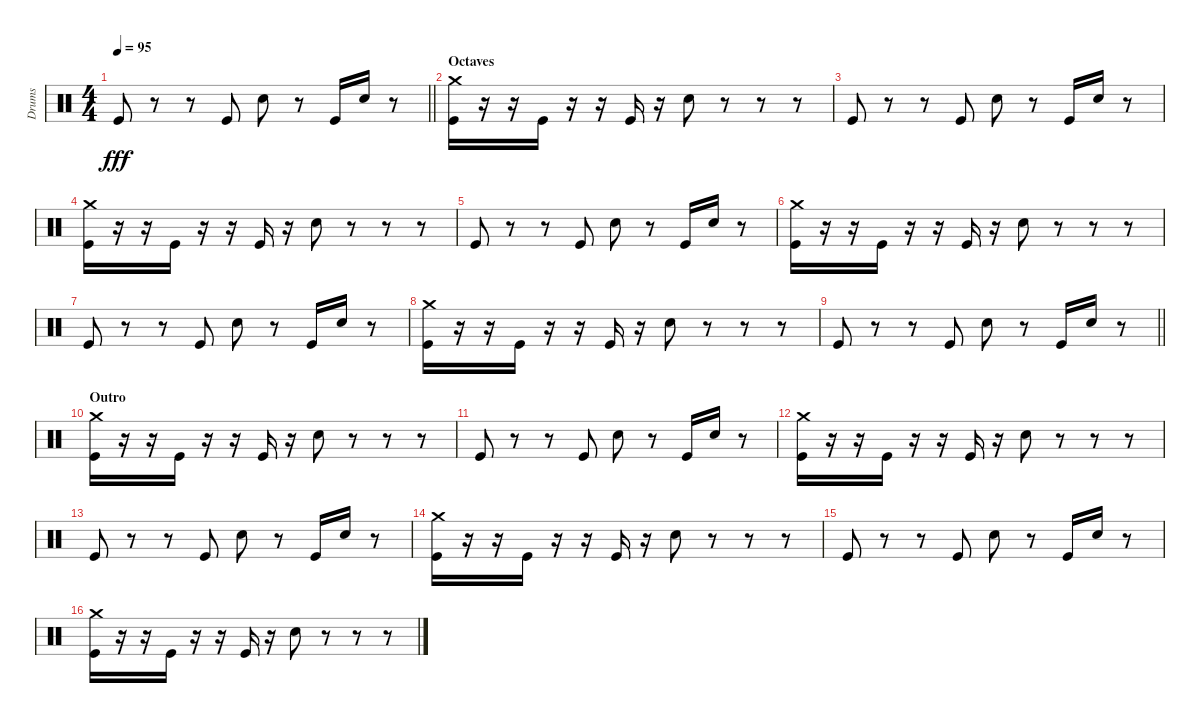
\track ("Drums" "Drums") {instrument percussion}
\staff {score}
\articulation defaults
\ts (4 4)
\tempo 95
\clef neutral
\barLineRight lightlight
\ks c "Kick (hit)".8{dy fff}
r.8 r.8 "Kick (hit)".8 "Electric Snare (hit)".8 r.8 "Kick (hit)".16 "Electric Snare (hit)".16 r.8 |
\section ("" "Octaves")
("Crash medium (hit)" "Kick (hit)").16 r.16 r.16 "Kick (hit)".16 r.16 r.16 "Kick (hit)".16 r.16 "Electric Snare (hit)".8 r.8 r.8 r.8 |
"Kick (hit)".8 r.8 r.8 "Kick (hit)".8 "Electric Snare (hit)".8 r.8 "Kick (hit)".16 "Electric Snare (hit)".16 r.8 |
("Crash medium (hit)" "Kick (hit)").16 r.16 r.16 "Kick (hit)".16 r.16 r.16 "Kick (hit)".16 r.16 "Electric Snare (hit)".8 r.8 r.8 r.8 |
"Kick (hit)".8 r.8 r.8 "Kick (hit)".8 "Electric Snare (hit)".8 r.8 "Kick (hit)".16 "Electric Snare (hit)".16 r.8 |
("Crash medium (hit)" "Kick (hit)").16 r.16 r.16 "Kick (hit)".16 r.16 r.16 "Kick (hit)".16 r.16 "Electric Snare (hit)".8 r.8 r.8 r.8 |
"Kick (hit)".8 r.8 r.8 "Kick (hit)".8 "Electric Snare (hit)".8 r.8 "Kick (hit)".16 "Electric Snare (hit)".16 r.8 |
("Crash medium (hit)" "Kick (hit)").16 r.16 r.16 "Kick (hit)".16 r.16 r.16 "Kick (hit)".16 r.16 "Electric Snare (hit)".8 r.8 r.8 r.8 |
\barLineRight lightlight "Kick (hit)".8
r.8 r.8 "Kick (hit)".8 "Electric Snare (hit)".8 r.8 "Kick (hit)".16 "Electric Snare (hit)".16 r.8 |
\section ("" "Outro")
("Crash medium (hit)" "Kick (hit)").16 r.16 r.16 "Kick (hit)".16 r.16 r.16 "Kick (hit)".16 r.16 "Electric Snare (hit)".8 r.8 r.8 r.8 |
"Kick (hit)".8 r.8 r.8 "Kick (hit)".8 "Electric Snare (hit)".8 r.8 "Kick (hit)".16 "Electric Snare (hit)".16 r.8 |
("Crash medium (hit)" "Kick (hit)").16 r.16 r.16 "Kick (hit)".16 r.16 r.16 "Kick (hit)".16 r.16 "Electric Snare (hit)".8 r.8 r.8 r.8 |
"Kick (hit)".8 r.8 r.8 "Kick (hit)".8 "Electric Snare (hit)".8 r.8 "Kick (hit)".16 "Electric Snare (hit)".16 r.8 |
("Crash medium (hit)" "Kick (hit)").16 r.16 r.16 "Kick (hit)".16 r.16 r.16 "Kick (hit)".16 r.16 "Electric Snare (hit)".8 r.8 r.8 r.8 |
"Kick (hit)".8 r.8 r.8 "Kick (hit)".8 "Electric Snare (hit)".8 r.8 "Kick (hit)".16 "Electric Snare (hit)".16 r.8 |
("Crash medium (hit)" "Kick (hit)").16 r.16 r.16 "Kick (hit)".16 r.16 r.16 "Kick (hit)".16 r.16 "Electric Snare (hit)".8 r.8 r.8 r.8
